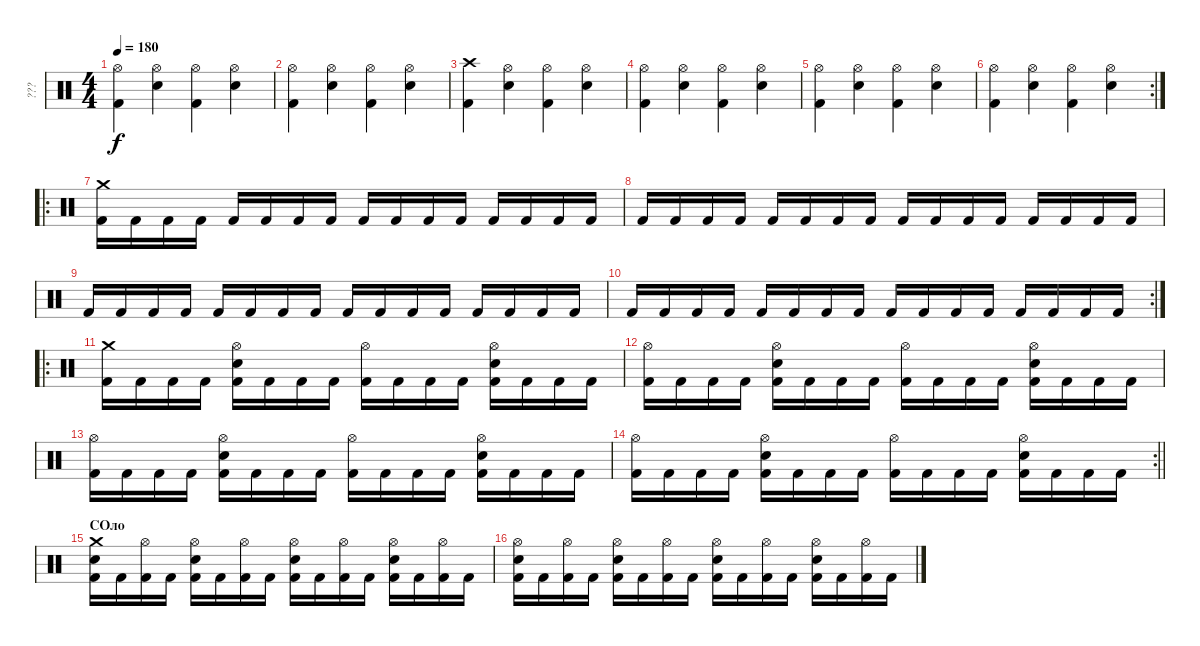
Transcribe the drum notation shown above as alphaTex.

\track ("???" "???") {instrument percussion}
\staff {score}
\articulation defaults
\ts (4 4)
\tempo 180
\clef neutral
\ks c
("Hi-Hat (open)" "Kick (hit) 2").4{dy f} ("Hi-Hat (open)" "Snare (hit) 2").4 ("Hi-Hat (open)" "Kick (hit) 2").4 ("Hi-Hat (open)" "Snare (hit) 2").4 |
("Hi-Hat (open)" "Kick (hit) 2").4 ("Hi-Hat (open)" "Snare (hit) 2").4 ("Hi-Hat (open)" "Kick (hit) 2").4 ("Hi-Hat (open)" "Snare (hit) 2").4 |
("Crash high (hit)" "Kick (hit) 2").4 ("Hi-Hat (open)" "Snare (hit) 2").4 ("Hi-Hat (open)" "Kick (hit) 2").4 ("Hi-Hat (open)" "Snare (hit) 2").4 |
("Hi-Hat (open)" "Kick (hit) 2").4 ("Hi-Hat (open)" "Snare (hit) 2").4 ("Hi-Hat (open)" "Kick (hit) 2").4 ("Hi-Hat (open)" "Snare (hit) 2").4 |
("Hi-Hat (open)" "Kick (hit) 2").4 ("Hi-Hat (open)" "Snare (hit) 2").4 ("Hi-Hat (open)" "Kick (hit) 2").4 ("Hi-Hat (open)" "Snare (hit) 2").4 |
\rc 2
("Hi-Hat (open)" "Kick (hit) 2").4 ("Hi-Hat (open)" "Snare (hit) 2").4 ("Hi-Hat (open)" "Kick (hit) 2").4 ("Hi-Hat (open)" "Snare (hit) 2").4 |
\ro
("Crash medium (hit)" "Kick (hit) 2").16 "Kick (hit) 2".16 "Kick (hit) 2".16 "Kick (hit) 2".16 "Kick (hit) 2".16 "Kick (hit) 2".16 "Kick (hit) 2".16 "Kick (hit) 2".16 "Kick (hit) 2".16 "Kick (hit) 2".16 "Kick (hit) 2".16 "Kick (hit) 2".16 "Kick (hit) 2".16 "Kick (hit) 2".16 "Kick (hit) 2".16 "Kick (hit) 2".16 |
"Kick (hit) 2".16 "Kick (hit) 2".16 "Kick (hit) 2".16 "Kick (hit) 2".16 "Kick (hit) 2".16 "Kick (hit) 2".16 "Kick (hit) 2".16 "Kick (hit) 2".16 "Kick (hit) 2".16 "Kick (hit) 2".16 "Kick (hit) 2".16 "Kick (hit) 2".16 "Kick (hit) 2".16 "Kick (hit) 2".16 "Kick (hit) 2".16 "Kick (hit) 2".16 |
"Kick (hit) 2".16 "Kick (hit) 2".16 "Kick (hit) 2".16 "Kick (hit) 2".16 "Kick (hit) 2".16 "Kick (hit) 2".16 "Kick (hit) 2".16 "Kick (hit) 2".16 "Kick (hit) 2".16 "Kick (hit) 2".16 "Kick (hit) 2".16 "Kick (hit) 2".16 "Kick (hit) 2".16 "Kick (hit) 2".16 "Kick (hit) 2".16 "Kick (hit) 2".16 |
\rc 2 "Kick (hit) 2".16 "Kick (hit) 2".16 "Kick (hit) 2".16 "Kick (hit) 2".16 "Kick (hit) 2".16 "Kick (hit) 2".16 "Kick (hit) 2".16 "Kick (hit) 2".16 "Kick (hit) 2".16 "Kick (hit) 2".16 "Kick (hit) 2".16 "Kick (hit) 2".16 "Kick (hit) 2".16 "Kick (hit) 2".16 "Kick (hit) 2".16 "Kick (hit) 2".16
|
\ro
("Crash medium (hit)" "Kick (hit) 2").16 "Kick (hit) 2".16 "Kick (hit) 2".16 "Kick (hit) 2".16 ("Hi-Hat (open)" "Kick (hit) 2" "Snare (hit) 2").16 "Kick (hit) 2".16 "Kick (hit) 2".16 "Kick (hit) 2".16 ("Hi-Hat (open)" "Kick (hit) 2").16 "Kick (hit) 2".16 "Kick (hit) 2".16 "Kick (hit) 2".16 ("Hi-Hat (open)" "Kick (hit) 2" "Snare (hit) 2").16 "Kick (hit) 2".16 "Kick (hit) 2".16 "Kick (hit) 2".16 |
("Hi-Hat (open)" "Kick (hit) 2").16 "Kick (hit) 2".16 "Kick (hit) 2".16 "Kick (hit) 2".16 ("Hi-Hat (open)" "Kick (hit) 2" "Snare (hit) 2").16 "Kick (hit) 2".16 "Kick (hit) 2".16 "Kick (hit) 2".16 ("Hi-Hat (open)" "Kick (hit) 2").16 "Kick (hit) 2".16 "Kick (hit) 2".16 "Kick (hit) 2".16 ("Hi-Hat (open)" "Kick (hit) 2" "Snare (hit) 2").16 "Kick (hit) 2".16 "Kick (hit) 2".16 "Kick (hit) 2".16 |
("Hi-Hat (open)" "Kick (hit) 2").16 "Kick (hit) 2".16 "Kick (hit) 2".16 "Kick (hit) 2".16 ("Hi-Hat (open)" "Kick (hit) 2" "Snare (hit) 2").16 "Kick (hit) 2".16 "Kick (hit) 2".16 "Kick (hit) 2".16 ("Hi-Hat (open)" "Kick (hit) 2").16 "Kick (hit) 2".16 "Kick (hit) 2".16 "Kick (hit) 2".16 ("Hi-Hat (open)" "Kick (hit) 2" "Snare (hit) 2").16 "Kick (hit) 2".16 "Kick (hit) 2".16 "Kick (hit) 2".16 |
\rc 2
\barLineRight lightlight
("Hi-Hat (open)" "Kick (hit) 2").16 "Kick (hit) 2".16 "Kick (hit) 2".16 "Kick (hit) 2".16 ("Hi-Hat (open)" "Kick (hit) 2" "Snare (hit) 2").16 "Kick (hit) 2".16 "Kick (hit) 2".16 "Kick (hit) 2".16 ("Hi-Hat (open)" "Kick (hit) 2").16 "Kick (hit) 2".16 "Kick (hit) 2".16 "Kick (hit) 2".16 ("Hi-Hat (open)" "Kick (hit) 2" "Snare (hit) 2").16 "Kick (hit) 2".16 "Kick (hit) 2".16 "Kick (hit) 2".16 |
\section ("" "СОло")
("Crash medium (hit)" "Kick (hit) 2" "Snare (hit) 2").16 "Kick (hit) 2".16 ("Hi-Hat (open)" "Kick (hit) 2").16 "Kick (hit) 2".16 ("Hi-Hat (open)" "Kick (hit) 2" "Snare (hit) 2").16 "Kick (hit) 2".16 ("Hi-Hat (open)" "Kick (hit) 2").16 "Kick (hit) 2".16 ("Hi-Hat (open)" "Kick (hit) 2" "Snare (hit) 2").16 "Kick (hit) 2".16 ("Hi-Hat (open)" "Kick (hit) 2").16 "Kick (hit) 2".16 ("Hi-Hat (open)" "Kick (hit) 2" "Snare (hit) 2").16 "Kick (hit) 2".16 ("Hi-Hat (open)" "Kick (hit) 2").16 "Kick (hit) 2".16 |
("Hi-Hat (open)" "Kick (hit) 2" "Snare (hit) 2").16 "Kick (hit) 2".16 ("Hi-Hat (open)" "Kick (hit) 2").16 "Kick (hit) 2".16 ("Hi-Hat (open)" "Kick (hit) 2" "Snare (hit) 2").16 "Kick (hit) 2".16 ("Hi-Hat (open)" "Kick (hit) 2").16 "Kick (hit) 2".16 ("Hi-Hat (open)" "Kick (hit) 2" "Snare (hit) 2").16 "Kick (hit) 2".16 ("Hi-Hat (open)" "Kick (hit) 2").16 "Kick (hit) 2".16 ("Hi-Hat (open)" "Kick (hit) 2" "Snare (hit) 2").16 "Kick (hit) 2".16 ("Hi-Hat (open)" "Kick (hit) 2").16 "Kick (hit) 2".16
